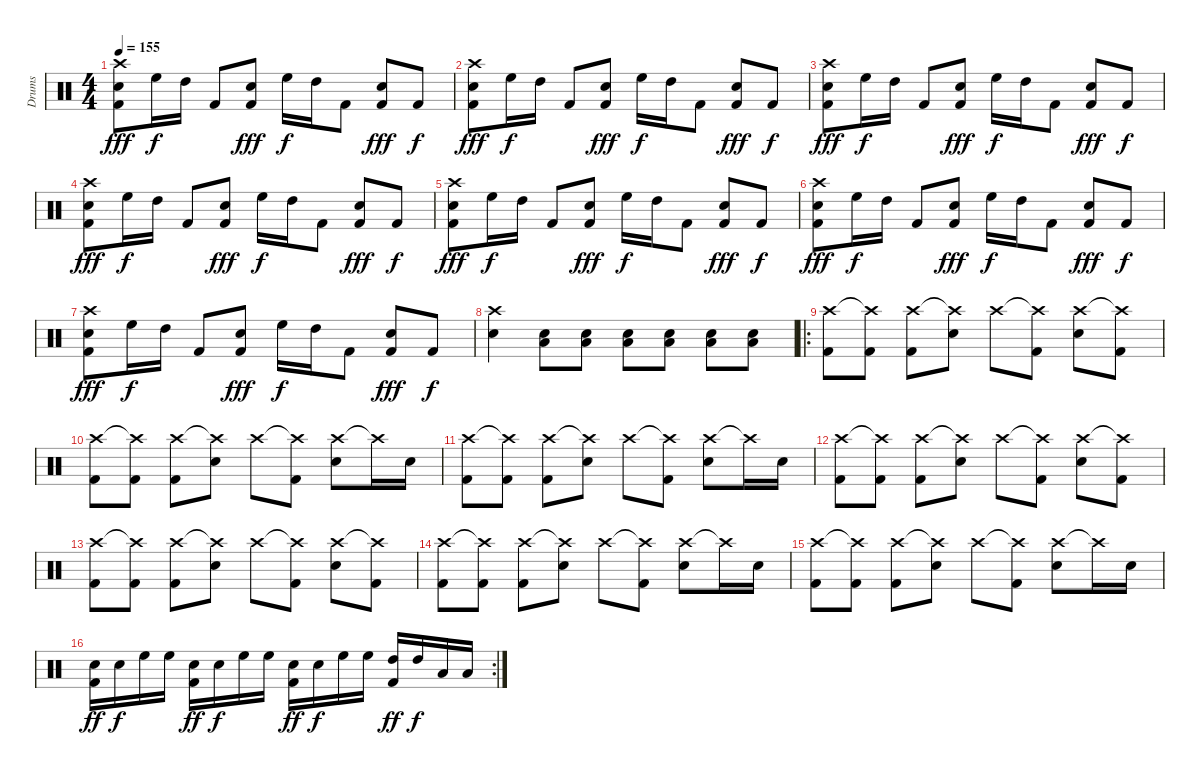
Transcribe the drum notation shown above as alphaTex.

\track ("Drums" "Drums") {instrument percussion}
\staff {score}
\articulation defaults
\ts (4 4)
\tempo 155
\clef neutral
\ks c
("Crash high (hit)" "Electric Snare (hit)" "Kick (hit) 2").8{dy fff} "High Floor Tom (hit)".16{dy f} "High Tom (hit)".16 "Kick (hit) 2".8 ("Electric Snare (hit)" "Kick (hit) 2").8{dy fff} "High Floor Tom (hit)".16{dy f} "High Tom (hit)".16 "Kick (hit) 2".8 ("Electric Snare (hit)" "Kick (hit) 2").8{dy fff} "Kick (hit) 2".8{dy f} |
("Crash high (hit)" "Electric Snare (hit)" "Kick (hit) 2").8{dy fff} "High Floor Tom (hit)".16{dy f} "High Tom (hit)".16 "Kick (hit) 2".8 ("Electric Snare (hit)" "Kick (hit) 2").8{dy fff} "High Floor Tom (hit)".16{dy f} "High Tom (hit)".16 "Kick (hit) 2".8 ("Electric Snare (hit)" "Kick (hit) 2").8{dy fff} "Kick (hit) 2".8{dy f} |
("Crash high (hit)" "Electric Snare (hit)" "Kick (hit) 2").8{dy fff} "High Floor Tom (hit)".16{dy f} "High Tom (hit)".16 "Kick (hit) 2".8 ("Electric Snare (hit)" "Kick (hit) 2").8{dy fff} "High Floor Tom (hit)".16{dy f} "High Tom (hit)".16 "Kick (hit) 2".8 ("Electric Snare (hit)" "Kick (hit) 2").8{dy fff} "Kick (hit) 2".8{dy f} |
("Crash high (hit)" "Electric Snare (hit)" "Kick (hit) 2").8{dy fff} "High Floor Tom (hit)".16{dy f} "High Tom (hit)".16 "Kick (hit) 2".8 ("Electric Snare (hit)" "Kick (hit) 2").8{dy fff} "High Floor Tom (hit)".16{dy f} "High Tom (hit)".16 "Kick (hit) 2".8 ("Electric Snare (hit)" "Kick (hit) 2").8{dy fff} "Kick (hit) 2".8{dy f} |
("Crash high (hit)" "Electric Snare (hit)" "Kick (hit) 2").8{dy fff} "High Floor Tom (hit)".16{dy f} "High Tom (hit)".16 "Kick (hit) 2".8 ("Electric Snare (hit)" "Kick (hit) 2").8{dy fff} "High Floor Tom (hit)".16{dy f} "High Tom (hit)".16 "Kick (hit) 2".8 ("Electric Snare (hit)" "Kick (hit) 2").8{dy fff} "Kick (hit) 2".8{dy f} |
("Crash high (hit)" "Electric Snare (hit)" "Kick (hit) 2").8{dy fff} "High Floor Tom (hit)".16{dy f} "High Tom (hit)".16 "Kick (hit) 2".8 ("Electric Snare (hit)" "Kick (hit) 2").8{dy fff} "High Floor Tom (hit)".16{dy f} "High Tom (hit)".16 "Kick (hit) 2".8 ("Electric Snare (hit)" "Kick (hit) 2").8{dy fff} "Kick (hit) 2".8{dy f} |
("Crash high (hit)" "Electric Snare (hit)" "Kick (hit) 2").8{dy fff} "High Floor Tom (hit)".16{dy f} "High Tom (hit)".16 "Kick (hit) 2".8 ("Electric Snare (hit)" "Kick (hit) 2").8{dy fff} "High Floor Tom (hit)".16{dy f} "High Tom (hit)".16 "Kick (hit) 2".8 ("Electric Snare (hit)" "Kick (hit) 2").8{dy fff} "Kick (hit) 2".8{dy f} |
("Crash high (hit)" "Electric Snare (hit)").4 ("Electric Snare (hit)" "Low Floor Tom (hit)").8 ("Electric Snare (hit)" "Low Floor Tom (hit)").8 ("Electric Snare (hit)" "Low Floor Tom (hit)").8 ("Electric Snare (hit)" "Low Floor Tom (hit)").8 ("Electric Snare (hit)" "Low Floor Tom (hit)").8 ("Electric Snare (hit)" "Low Floor Tom (hit)").8 |
\ro
("Crash high (hit)" "Kick (hit) 2").8 ("Crash high (hit)"{t} "Kick (hit) 2").8 ("Crash high (hit)" "Kick (hit) 2").8 ("Crash high (hit)"{t} "Electric Snare (hit)").8 "Crash high (hit)".8 ("Crash high (hit)"{t} "Kick (hit) 2").8 ("Crash high (hit)" "Electric Snare (hit)").8 ("Crash high (hit)"{t} "Kick (hit) 2").8 |
("Crash high (hit)" "Kick (hit) 2").8 ("Crash high (hit)"{t} "Kick (hit) 2").8 ("Crash high (hit)" "Kick (hit) 2").8 ("Crash high (hit)"{t} "Electric Snare (hit)").8 "Crash high (hit)".8 ("Crash high (hit)"{t} "Kick (hit) 2").8 ("Crash high (hit)" "Electric Snare (hit)").8 "Crash high (hit)"{t}.16 "Electric Snare (hit)".16 |
("Crash high (hit)" "Kick (hit) 2").8 ("Crash high (hit)"{t} "Kick (hit) 2").8 ("Crash high (hit)" "Kick (hit) 2").8 ("Crash high (hit)"{t} "Electric Snare (hit)").8 "Crash high (hit)".8 ("Crash high (hit)"{t} "Kick (hit) 2").8 ("Crash high (hit)" "Electric Snare (hit)").8 "Crash high (hit)"{t}.16 "Electric Snare (hit)".16 |
("Crash high (hit)" "Kick (hit) 2").8 ("Crash high (hit)"{t} "Kick (hit) 2").8 ("Crash high (hit)" "Kick (hit) 2").8 ("Crash high (hit)"{t} "Electric Snare (hit)").8 "Crash high (hit)".8 ("Crash high (hit)"{t} "Kick (hit) 2").8 ("Crash high (hit)" "Electric Snare (hit)").8 ("Crash high (hit)"{t} "Kick (hit) 2").8 |
("Crash high (hit)" "Kick (hit) 2").8 ("Crash high (hit)"{t} "Kick (hit) 2").8 ("Crash high (hit)" "Kick (hit) 2").8 ("Crash high (hit)"{t} "Electric Snare (hit)").8 "Crash high (hit)".8 ("Crash high (hit)"{t} "Kick (hit) 2").8 ("Crash high (hit)" "Electric Snare (hit)").8 ("Crash high (hit)"{t} "Kick (hit) 2").8 |
("Crash high (hit)" "Kick (hit) 2").8 ("Crash high (hit)"{t} "Kick (hit) 2").8 ("Crash high (hit)" "Kick (hit) 2").8 ("Crash high (hit)"{t} "Electric Snare (hit)").8 "Crash high (hit)".8 ("Crash high (hit)"{t} "Kick (hit) 2").8 ("Crash high (hit)" "Electric Snare (hit)").8 "Crash high (hit)"{t}.16 "Electric Snare (hit)".16 |
("Crash high (hit)" "Kick (hit) 2").8 ("Crash high (hit)"{t} "Kick (hit) 2").8 ("Crash high (hit)" "Kick (hit) 2").8 ("Crash high (hit)"{t} "Electric Snare (hit)").8 "Crash high (hit)".8 ("Crash high (hit)"{t} "Kick (hit) 2").8 ("Crash high (hit)" "Electric Snare (hit)").8 "Crash high (hit)"{t}.16 "Electric Snare (hit)".16 |
\rc 2
("Electric Snare (hit)" "Kick (hit) 2").16{dy ff} "Electric Snare (hit)".16{dy f} "High Floor Tom (hit)".16 "High Floor Tom (hit)".16 ("Electric Snare (hit)" "Kick (hit) 2").16{dy ff} "Electric Snare (hit)".16{dy f} "High Floor Tom (hit)".16 "High Floor Tom (hit)".16 ("Electric Snare (hit)" "Kick (hit) 2").16{dy ff} "Electric Snare (hit)".16{dy f} "High Floor Tom (hit)".16 "High Floor Tom (hit)".16 ("High Tom (hit)" "Kick (hit) 2").16{dy ff} "High Tom (hit)".16{dy f} "Low Floor Tom (hit)".16 "Low Floor Tom (hit)".16
